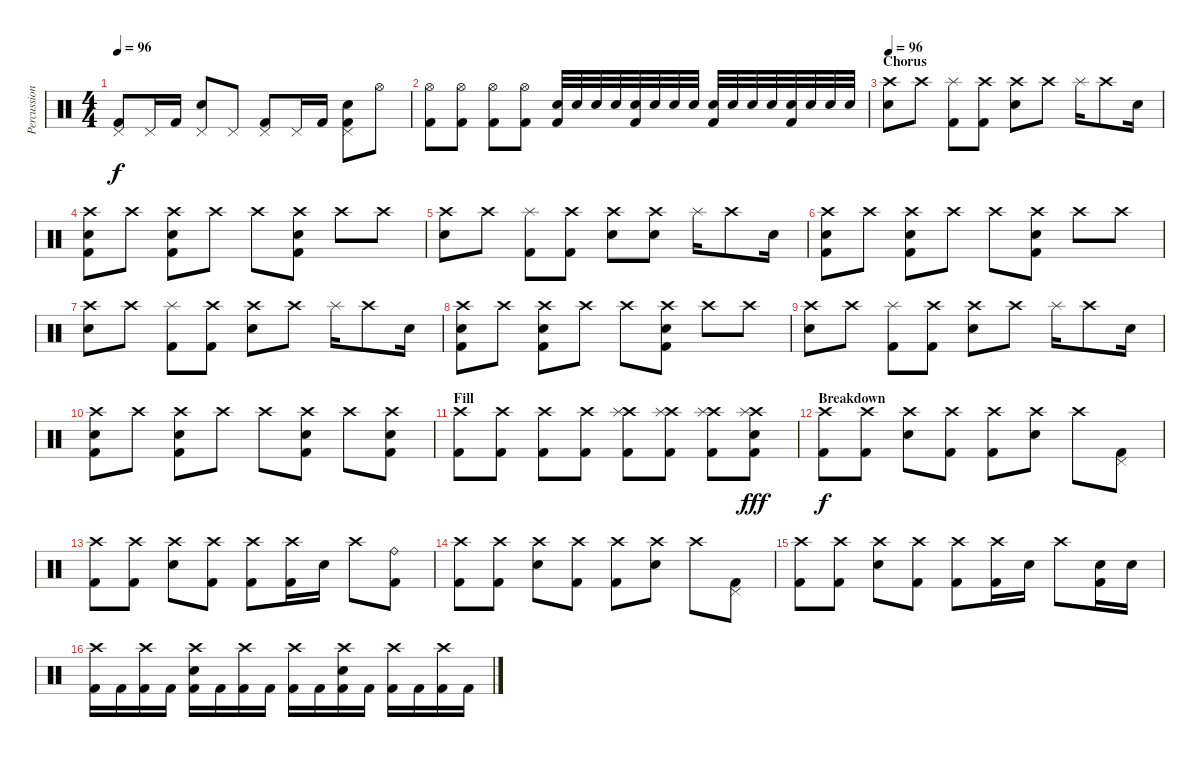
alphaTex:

\track ("Percussion" "Percussion") {instrument percussion}
\staff {score}
\articulation defaults
\ts (4 4)
\tempo 96
\clef neutral
\ks c
("Pedal Hi-Hat (hit)" "Kick (hit) 2").8{dy f} "Pedal Hi-Hat (hit)".16 "Kick (hit) 2".16 ("Pedal Hi-Hat (hit)" "Snare (hit) 2").8 "Pedal Hi-Hat (hit)".8 ("Pedal Hi-Hat (hit)" "Kick (hit) 2").8 "Pedal Hi-Hat (hit)".16 "Kick (hit) 2".16 ("Pedal Hi-Hat (hit)" "Kick (hit) 2" "Snare (hit) 2").8 "Hi-Hat (open)".8 |
("Hi-Hat (open)" "Kick (hit) 2").8 ("Hi-Hat (open)" "Kick (hit) 2").8 ("Hi-Hat (open)" "Kick (hit) 2").8 ("Hi-Hat (open)" "Kick (hit) 2").8 ("Kick (hit) 2" "Snare (hit) 2").32 "Snare (hit) 2".32 "Snare (hit) 2".32 "Snare (hit) 2".32 ("Kick (hit) 2" "Snare (hit) 2").32 "Snare (hit) 2".32 "Snare (hit) 2".32 "Snare (hit) 2".32 ("Kick (hit) 2" "Snare (hit) 2").32 "Snare (hit) 2".32 "Snare (hit) 2".32 "Snare (hit) 2".32 ("Kick (hit) 2" "Snare (hit) 2").32 "Snare (hit) 2".32 "Snare (hit) 2".32 "Snare (hit) 2".32 |
\section ("" "Chorus")
\tempo 96
("Snare (hit) 2" "Crash high (hit)").8 "Crash high (hit)".8 ("Splash (hit)" "Kick (hit) 2").8 ("Crash high (hit)" "Kick (hit) 2").8 ("Snare (hit) 2" "Crash high (hit)").8 "Crash high (hit)".8 "Splash (hit)".16 "Crash high (hit)".8 "Snare (hit) 2".16 |
("Snare (hit) 2" "Crash high (hit)" "Kick (hit) 2").8 "Crash high (hit)".8 ("Snare (hit) 2" "Crash high (hit)" "Kick (hit) 2").8 "Crash high (hit)".8 "Crash high (hit)".8 ("Snare (hit) 2" "Crash high (hit)" "Kick (hit) 2").8 "Crash high (hit)".8 "Crash high (hit)".8 |
("Snare (hit) 2" "Crash high (hit)").8 "Crash high (hit)".8 ("Splash (hit)" "Kick (hit) 2").8 ("Crash high (hit)" "Kick (hit) 2").8 ("Snare (hit) 2" "Crash high (hit)").8 ("Snare (hit) 2" "Crash high (hit)").8 "Splash (hit)".16 "Crash high (hit)".8 "Snare (hit) 2".16 |
("Snare (hit) 2" "Crash high (hit)" "Kick (hit) 2").8 "Crash high (hit)".8 ("Snare (hit) 2" "Crash high (hit)" "Kick (hit) 2").8 "Crash high (hit)".8 "Crash high (hit)".8 ("Snare (hit) 2" "Crash high (hit)" "Kick (hit) 2").8 "Crash high (hit)".8 "Crash high (hit)".8 |
("Snare (hit) 2" "Crash high (hit)").8 "Crash high (hit)".8 ("Splash (hit)" "Kick (hit) 2").8 ("Crash high (hit)" "Kick (hit) 2").8 ("Snare (hit) 2" "Crash high (hit)").8 "Crash high (hit)".8 "Splash (hit)".16 "Crash high (hit)".8 "Snare (hit) 2".16 |
("Snare (hit) 2" "Crash high (hit)" "Kick (hit) 2").8 "Crash high (hit)".8 ("Snare (hit) 2" "Crash high (hit)" "Kick (hit) 2").8 "Crash high (hit)".8 "Crash high (hit)".8 ("Snare (hit) 2" "Crash high (hit)" "Kick (hit) 2").8 "Crash high (hit)".8 "Crash high (hit)".8 |
("Snare (hit) 2" "Crash high (hit)").8 "Crash high (hit)".8 ("Splash (hit)" "Kick (hit) 2").8 ("Crash high (hit)" "Kick (hit) 2").8 ("Snare (hit) 2" "Crash high (hit)").8 "Crash high (hit)".8 "Splash (hit)".16 "Crash high (hit)".8 "Snare (hit) 2".16 |
("Snare (hit) 2" "Crash high (hit)" "Kick (hit) 2").8 "Crash high (hit)".8 ("Snare (hit) 2" "Crash high (hit)" "Kick (hit) 2").8 "Crash high (hit)".8 "Crash high (hit)".8 ("Snare (hit) 2" "Crash high (hit)" "Kick (hit) 2").8 "Crash high (hit)".8 ("Snare (hit) 2" "Crash high (hit)" "Kick (hit) 2").8 |
\section ("" "Fill")
("Kick (hit) 2" "Crash high (hit)").8 ("Kick (hit) 2" "Crash high (hit)").8 ("Kick (hit) 2" "Crash high (hit)").8 ("Kick (hit) 2" "Crash high (hit)").8 ("Kick (hit) 2" "Crash high (hit)" "Splash (hit)").8 ("Kick (hit) 2" "Crash high (hit)" "Splash (hit)").8 ("Kick (hit) 2" "Crash high (hit)" "Splash (hit)").8 ("Kick (hit) 2" "Snare (hit) 2" "Crash high (hit)" "Splash (hit)").8{dy fff} |
\section ("" "Breakdown")
("Kick (hit) 2" "Crash high (hit)").8{dy f} ("Kick (hit) 2" "Crash high (hit)").8 ("Snare (hit) 2" "Crash high (hit)").8 ("Kick (hit) 2" "Crash high (hit)").8 ("Kick (hit) 2" "Crash high (hit)").8 ("Snare (hit) 2" "Crash high (hit)").8 "Crash high (hit)".8 ("Kick (hit) 2" "Pedal Hi-Hat (hit)").8 |
("Kick (hit) 2" "Crash high (hit)").8 ("Kick (hit) 2" "Crash high (hit)").8 ("Snare (hit) 2" "Crash high (hit)").8 ("Kick (hit) 2" "Crash high (hit)").8 ("Kick (hit) 2" "Crash high (hit)").8 ("Kick (hit) 2" "Crash high (hit)").16 "Snare (hit) 2".16 "Crash high (hit)".8 ("Kick (hit) 2" "Ride (bell)").8 |
("Kick (hit) 2" "Crash high (hit)").8 ("Kick (hit) 2" "Crash high (hit)").8 ("Snare (hit) 2" "Crash high (hit)").8 ("Kick (hit) 2" "Crash high (hit)").8 ("Kick (hit) 2" "Crash high (hit)").8 ("Snare (hit) 2" "Crash high (hit)").8 "Crash high (hit)".8 ("Kick (hit) 2" "Pedal Hi-Hat (hit)").8 |
("Kick (hit) 2" "Crash high (hit)").8 ("Kick (hit) 2" "Crash high (hit)").8 ("Snare (hit) 2" "Crash high (hit)").8 ("Kick (hit) 2" "Crash high (hit)").8 ("Kick (hit) 2" "Crash high (hit)").8 ("Kick (hit) 2" "Crash high (hit)").16 "Snare (hit) 2".16 "Crash high (hit)".8 ("Kick (hit) 2" "Snare (hit) 2").16 "Snare (hit) 2".16 |
("Kick (hit) 2" "Crash high (hit)").16 "Kick (hit) 2".16 ("Kick (hit) 2" "Crash high (hit)").16 "Kick (hit) 2".16 ("Kick (hit) 2" "Snare (hit) 2" "Crash high (hit)").16 "Kick (hit) 2".16 ("Kick (hit) 2" "Crash high (hit)").16 "Kick (hit) 2".16 ("Kick (hit) 2" "Crash high (hit)").16 "Kick (hit) 2".16 ("Kick (hit) 2" "Snare (hit) 2" "Crash high (hit)").16 "Kick (hit) 2".16 ("Kick (hit) 2" "Crash high (hit)").16 "Kick (hit) 2".16 ("Kick (hit) 2" "Crash high (hit)").16 "Kick (hit) 2".16
